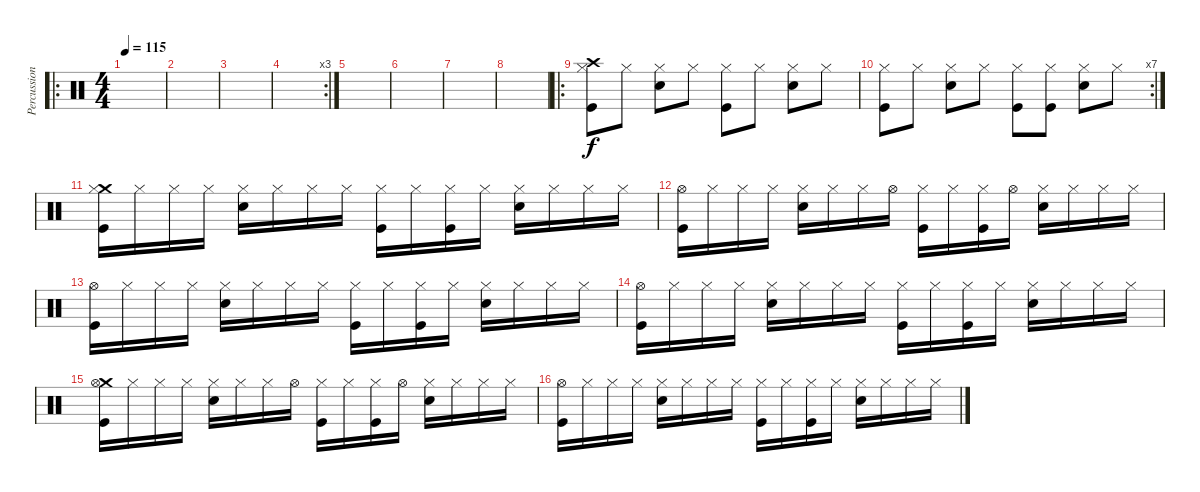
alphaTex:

\track ("Percussions" "Percussion") {instrument percussion}
\staff {score}
\articulation defaults
\ro
\ts (4 4)
\tempo 115
\clef neutral
\ks c
|
|
|
\rc 3
|
|
|
|
|
\ro
("Crash high (hit)" "Hi-Hat (closed)" "Kick (hit)").8 "Hi-Hat (closed)".8 ("Hi-Hat (closed)" "Snare (hit) 2").8 "Hi-Hat (closed)".8 ("Hi-Hat (closed)" "Kick (hit)").8 "Hi-Hat (closed)".8 ("Hi-Hat (closed)" "Snare (hit) 2").8 "Hi-Hat (closed)".8 |
\rc 7
("Hi-Hat (closed)" "Kick (hit)").8 "Hi-Hat (closed)".8 ("Hi-Hat (closed)" "Snare (hit) 2").8 "Hi-Hat (closed)".8 ("Hi-Hat (closed)" "Kick (hit)").8 ("Hi-Hat (closed)" "Kick (hit)").8 ("Hi-Hat (closed)" "Snare (hit) 2").8 "Hi-Hat (closed)".8 |
("Crash medium (hit)" "Hi-Hat (closed)" "Kick (hit)").16 "Hi-Hat (closed)".16 "Hi-Hat (closed)".16 "Hi-Hat (closed)".16 ("Hi-Hat (closed)" "Snare (hit) 2").16 "Hi-Hat (closed)".16 "Hi-Hat (closed)".16 "Hi-Hat (closed)".16 ("Hi-Hat (closed)" "Kick (hit)").16 "Hi-Hat (closed)".16 ("Hi-Hat (closed)" "Kick (hit)").16 "Hi-Hat (closed)".16 ("Hi-Hat (closed)" "Snare (hit) 2").16 "Hi-Hat (closed)".16 "Hi-Hat (closed)".16 "Hi-Hat (closed)".16 |
("Hi-Hat (open)" "Kick (hit)").16 "Hi-Hat (closed)".16 "Hi-Hat (closed)".16 "Hi-Hat (closed)".16 ("Hi-Hat (closed)" "Snare (hit) 2").16 "Hi-Hat (closed)".16 "Hi-Hat (closed)".16 "Hi-Hat (open)".16 ("Hi-Hat (closed)" "Kick (hit)").16 "Hi-Hat (closed)".16 ("Hi-Hat (closed)" "Kick (hit)").16 "Hi-Hat (open)".16 ("Hi-Hat (closed)" "Snare (hit) 2").16 "Hi-Hat (closed)".16 "Hi-Hat (closed)".16 "Hi-Hat (closed)".16 |
("Hi-Hat (open)" "Kick (hit)").16 "Hi-Hat (closed)".16 "Hi-Hat (closed)".16 "Hi-Hat (closed)".16 ("Hi-Hat (closed)" "Snare (hit) 2").16 "Hi-Hat (closed)".16 "Hi-Hat (closed)".16 "Hi-Hat (closed)".16 ("Hi-Hat (closed)" "Kick (hit)").16 "Hi-Hat (closed)".16 ("Hi-Hat (closed)" "Kick (hit)").16 "Hi-Hat (closed)".16 ("Hi-Hat (closed)" "Snare (hit) 2").16 "Hi-Hat (closed)".16 "Hi-Hat (closed)".16 "Hi-Hat (closed)".16 |
("Hi-Hat (open)" "Kick (hit)").16 "Hi-Hat (closed)".16 "Hi-Hat (closed)".16 "Hi-Hat (closed)".16 ("Hi-Hat (closed)" "Snare (hit) 2").16 "Hi-Hat (closed)".16 "Hi-Hat (closed)".16 "Hi-Hat (closed)".16 ("Hi-Hat (closed)" "Kick (hit)").16 "Hi-Hat (closed)".16 ("Hi-Hat (closed)" "Kick (hit)").16 "Hi-Hat (closed)".16 ("Hi-Hat (closed)" "Snare (hit) 2").16 "Hi-Hat (closed)".16 "Hi-Hat (closed)".16 "Hi-Hat (closed)".16 |
("Crash medium (hit)" "Hi-Hat (open)" "Kick (hit)").16 "Hi-Hat (closed)".16 "Hi-Hat (closed)".16 "Hi-Hat (closed)".16 ("Hi-Hat (closed)" "Snare (hit) 2").16 "Hi-Hat (closed)".16 "Hi-Hat (closed)".16 "Hi-Hat (open)".16 ("Hi-Hat (closed)" "Kick (hit)").16 "Hi-Hat (closed)".16 ("Hi-Hat (closed)" "Kick (hit)").16 "Hi-Hat (open)".16 ("Hi-Hat (closed)" "Snare (hit) 2").16 "Hi-Hat (closed)".16 "Hi-Hat (closed)".16 "Hi-Hat (closed)".16 |
("Hi-Hat (open)" "Kick (hit)").16 "Hi-Hat (closed)".16 "Hi-Hat (closed)".16 "Hi-Hat (closed)".16 ("Hi-Hat (closed)" "Snare (hit) 2").16 "Hi-Hat (closed)".16 "Hi-Hat (closed)".16 "Hi-Hat (closed)".16 ("Hi-Hat (closed)" "Kick (hit)").16 "Hi-Hat (closed)".16 ("Hi-Hat (closed)" "Kick (hit)").16 "Hi-Hat (closed)".16 ("Hi-Hat (closed)" "Snare (hit) 2").16 "Hi-Hat (closed)".16 "Hi-Hat (closed)".16 "Hi-Hat (closed)".16
